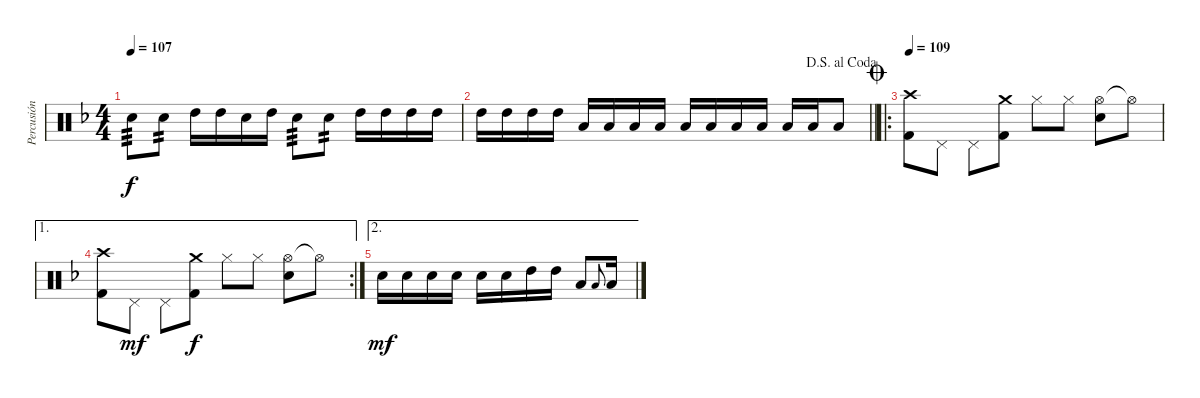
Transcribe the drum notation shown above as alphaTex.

\track ("Percusión" "Percusión") {instrument percussion}
\staff {score}
\articulation defaults
\ts (4 4)
\tempo 107
\clef neutral
\ks f "Snare (hit) 2".8{tp 3 dy f} "Snare (hit) 2".8{tp 2} "High Tom (hit)".16 "High Tom (hit)".16 "Snare (hit) 2".16 "High Tom (hit)".16 "Snare (hit) 2".8{tp 3} "Snare (hit) 2".8{tp 2} "High Tom (hit)".16 "High Tom (hit)".16 "High Tom (hit)".16 "High Tom (hit)".16
|
\jump dalsegnoalcoda
\barLineRight lightlight "High Tom (hit)".16 "High Tom (hit)".16 "High Tom (hit)".16 "High Tom (hit)".16 "Low Tom (hit)".16 "Low Tom (hit)".16 "Low Tom (hit)".16 "Low Tom (hit)".16 "Low Floor Tom (hit)".16 "Low Floor Tom (hit)".16 "Low Floor Tom (hit)".16 "Low Floor Tom (hit)".16 "Low Floor Tom (hit)".16 "Low Floor Tom (hit)".16 "Low Floor Tom (hit)".8
|
\ro
\jump coda
\tempo 109
("Crash high (hit)" "Kick (hit) 2").8 "Pedal Hi-Hat (hit)".8 "Pedal Hi-Hat (hit)".8 ("Crash medium (hit)" "Kick (hit) 2").8 "Hi-Hat (closed)".8 "Hi-Hat (closed)".8 ("Hi-Hat (open)" "Snare (hit) 2").8 "Hi-Hat (open)"{t}.8 |
\ae 1
\rc 2
("Crash high (hit)" "Kick (hit) 2").8 "Pedal Hi-Hat (hit)".8{dy mf} "Pedal Hi-Hat (hit)".8 ("Crash medium (hit)" "Kick (hit) 2").8{dy f} "Hi-Hat (closed)".8 "Hi-Hat (closed)".8 ("Hi-Hat (open)" "Snare (hit) 2").8 "Hi-Hat (open)"{t}.8 |
\ae 2 "Snare (hit) 2".16{dy mf} "Snare (hit) 2".16 "Snare (hit) 2".16 "Snare (hit) 2".16 "Snare (hit) 2".16 "Snare (hit) 2".16 "High Tom (hit)".16 "High Tom (hit)".16 "Low Tom (hit)".8 "Low Floor Tom (hit)"{h}.8{gr onbeat} "Low Tom (hit)".16
